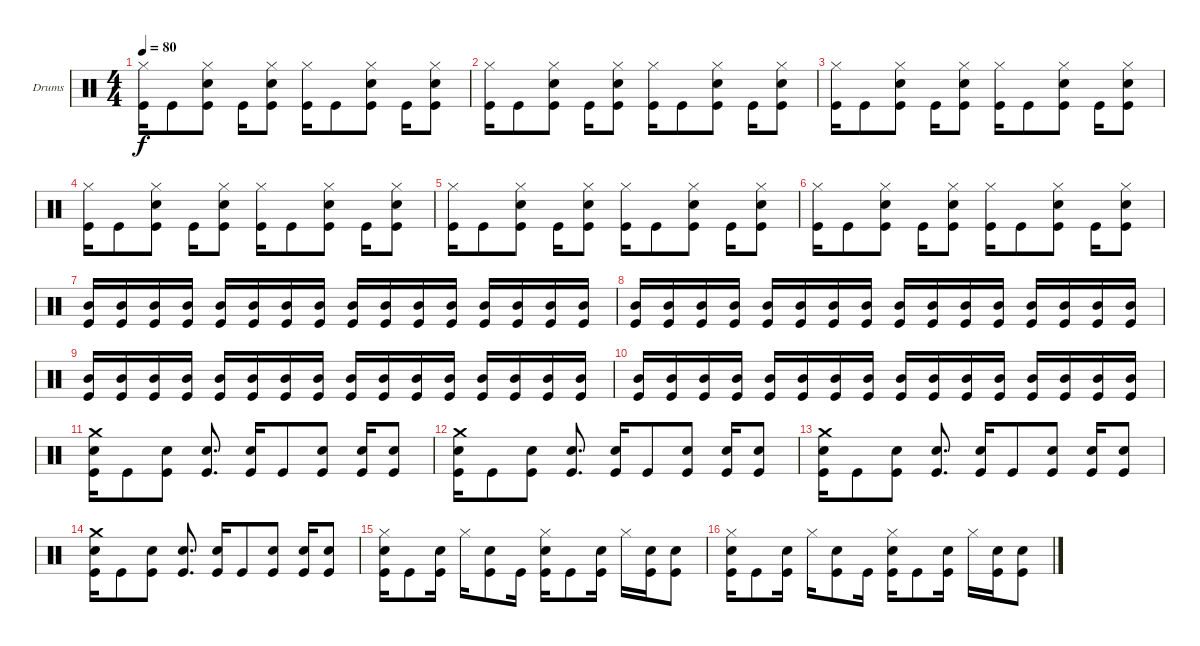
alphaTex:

\defaultSystemsLayout 4
\bracketExtendMode groupsimilarinstruments
\firstSystemTrackNameOrientation horizontal
\otherSystemsTrackNameOrientation horizontal
\track ("Drumkit" "Drums") {instrument percussion}
\staff {score}
\articulation defaults
\ts (4 4)
\tempo 80
\clef neutral
\scale
0.333333
\ks c
("Hi-Hat (closed)" "Kick (hit)").16{dy f} "Kick (hit)".8 ("Hi-Hat (closed)" "Snare (hit) 2" "Kick (hit)").8 "Kick (hit)".16 ("Hi-Hat (closed)" "Snare (hit) 2" "Kick (hit)").8 ("Hi-Hat (closed)" "Kick (hit)").16 "Kick (hit)".8 ("Hi-Hat (closed)" "Snare (hit) 2" "Kick (hit)").8 "Kick (hit)".16 ("Hi-Hat (closed)" "Snare (hit) 2" "Kick (hit)").8 |
\scale
0.333333 ("Hi-Hat (closed)" "Kick (hit)").16 "Kick (hit)".8 ("Hi-Hat (closed)" "Snare (hit) 2" "Kick (hit)").8 "Kick (hit)".16 ("Hi-Hat (closed)" "Snare (hit) 2" "Kick (hit)").8 ("Hi-Hat (closed)" "Kick (hit)").16 "Kick (hit)".8 ("Hi-Hat (closed)" "Snare (hit) 2" "Kick (hit)").8 "Kick (hit)".16 ("Hi-Hat (closed)" "Snare (hit) 2" "Kick (hit)").8 |
\scale
0.333333 ("Hi-Hat (closed)" "Kick (hit)").16 "Kick (hit)".8 ("Hi-Hat (closed)" "Snare (hit) 2" "Kick (hit)").8 "Kick (hit)".16 ("Hi-Hat (closed)" "Snare (hit) 2" "Kick (hit)").8 ("Hi-Hat (closed)" "Kick (hit)").16 "Kick (hit)".8 ("Hi-Hat (closed)" "Snare (hit) 2" "Kick (hit)").8 "Kick (hit)".16 ("Hi-Hat (closed)" "Snare (hit) 2" "Kick (hit)").8 |
\scale
0.333333 ("Hi-Hat (closed)" "Kick (hit)").16 "Kick (hit)".8 ("Hi-Hat (closed)" "Snare (hit) 2" "Kick (hit)").8 "Kick (hit)".16 ("Hi-Hat (closed)" "Snare (hit) 2" "Kick (hit)").8 ("Hi-Hat (closed)" "Kick (hit)").16 "Kick (hit)".8 ("Hi-Hat (closed)" "Snare (hit) 2" "Kick (hit)").8 "Kick (hit)".16 ("Hi-Hat (closed)" "Snare (hit) 2" "Kick (hit)").8 |
\scale
0.333333 ("Hi-Hat (closed)" "Kick (hit)").16 "Kick (hit)".8 ("Hi-Hat (closed)" "Snare (hit) 2" "Kick (hit)").8 "Kick (hit)".16 ("Hi-Hat (closed)" "Snare (hit) 2" "Kick (hit)").8 ("Hi-Hat (closed)" "Kick (hit)").16 "Kick (hit)".8 ("Hi-Hat (closed)" "Snare (hit) 2" "Kick (hit)").8 "Kick (hit)".16 ("Hi-Hat (closed)" "Snare (hit) 2" "Kick (hit)").8 |
\scale
0.333333 ("Hi-Hat (closed)" "Kick (hit)").16 "Kick (hit)".8 ("Hi-Hat (closed)" "Snare (hit) 2" "Kick (hit)").8 "Kick (hit)".16 ("Hi-Hat (closed)" "Snare (hit) 2" "Kick (hit)").8 ("Hi-Hat (closed)" "Kick (hit)").16 "Kick (hit)".8 ("Hi-Hat (closed)" "Snare (hit) 2" "Kick (hit)").8 "Kick (hit)".16 ("Hi-Hat (closed)" "Snare (hit) 2" "Kick (hit)").8 |
\scale
0.333333 ("Mid Tom (hit)" "Kick (hit)").16 ("Mid Tom (hit)" "Kick (hit)").16 ("Mid Tom (hit)" "Kick (hit)").16 ("Mid Tom (hit)" "Kick (hit)").16 ("Mid Tom (hit)" "Kick (hit)").16 ("Mid Tom (hit)" "Kick (hit)").16 ("Mid Tom (hit)" "Kick (hit)").16 ("Mid Tom (hit)" "Kick (hit)").16 ("Mid Tom (hit)" "Kick (hit)").16 ("Mid Tom (hit)" "Kick (hit)").16 ("Mid Tom (hit)" "Kick (hit)").16 ("Mid Tom (hit)" "Kick (hit)").16 ("Mid Tom (hit)" "Kick (hit)").16 ("Mid Tom (hit)" "Kick (hit)").16 ("Mid Tom (hit)" "Kick (hit)").16 ("Mid Tom (hit)" "Kick (hit)").16 |
\scale
0.333333 ("Mid Tom (hit)" "Kick (hit)").16 ("Mid Tom (hit)" "Kick (hit)").16 ("Mid Tom (hit)" "Kick (hit)").16 ("Mid Tom (hit)" "Kick (hit)").16 ("Mid Tom (hit)" "Kick (hit)").16 ("Mid Tom (hit)" "Kick (hit)").16 ("Mid Tom (hit)" "Kick (hit)").16 ("Mid Tom (hit)" "Kick (hit)").16 ("Mid Tom (hit)" "Kick (hit)").16 ("Mid Tom (hit)" "Kick (hit)").16 ("Mid Tom (hit)" "Kick (hit)").16 ("Mid Tom (hit)" "Kick (hit)").16 ("Mid Tom (hit)" "Kick (hit)").16 ("Mid Tom (hit)" "Kick (hit)").16 ("Mid Tom (hit)" "Kick (hit)").16 ("Mid Tom (hit)" "Kick (hit)").16 |
\scale
0.333333 ("Mid Tom (hit)" "Kick (hit)").16 ("Mid Tom (hit)" "Kick (hit)").16 ("Mid Tom (hit)" "Kick (hit)").16 ("Mid Tom (hit)" "Kick (hit)").16 ("Mid Tom (hit)" "Kick (hit)").16 ("Mid Tom (hit)" "Kick (hit)").16 ("Mid Tom (hit)" "Kick (hit)").16 ("Mid Tom (hit)" "Kick (hit)").16 ("Mid Tom (hit)" "Kick (hit)").16 ("Mid Tom (hit)" "Kick (hit)").16 ("Mid Tom (hit)" "Kick (hit)").16 ("Mid Tom (hit)" "Kick (hit)").16 ("Mid Tom (hit)" "Kick (hit)").16 ("Mid Tom (hit)" "Kick (hit)").16 ("Mid Tom (hit)" "Kick (hit)").16 ("Mid Tom (hit)" "Kick (hit)").16 |
\scale
0.333333 ("Mid Tom (hit)" "Kick (hit)").16 ("Mid Tom (hit)" "Kick (hit)").16 ("Mid Tom (hit)" "Kick (hit)").16 ("Mid Tom (hit)" "Kick (hit)").16 ("Mid Tom (hit)" "Kick (hit)").16 ("Mid Tom (hit)" "Kick (hit)").16 ("Mid Tom (hit)" "Kick (hit)").16 ("Mid Tom (hit)" "Kick (hit)").16 ("Mid Tom (hit)" "Kick (hit)").16 ("Mid Tom (hit)" "Kick (hit)").16 ("Mid Tom (hit)" "Kick (hit)").16 ("Mid Tom (hit)" "Kick (hit)").16 ("Mid Tom (hit)" "Kick (hit)").16 ("Mid Tom (hit)" "Kick (hit)").16 ("Mid Tom (hit)" "Kick (hit)").16 ("Mid Tom (hit)" "Kick (hit)").16 |
\scale
0.333333 ("Crash medium (hit)" "Snare (hit) 2" "Kick (hit)").16 "Kick (hit)".8 ("Snare (hit) 2" "Kick (hit)").8 ("Snare (hit) 2" "Kick (hit)").8{d} ("Snare (hit) 2" "Kick (hit)").16 "Kick (hit)".8 ("Snare (hit) 2" "Kick (hit)").8 ("Snare (hit) 2" "Kick (hit)").16 ("Snare (hit) 2" "Kick (hit)").8 |
\scale
0.333333 ("Crash medium (hit)" "Snare (hit) 2" "Kick (hit)").16 "Kick (hit)".8 ("Snare (hit) 2" "Kick (hit)").8 ("Snare (hit) 2" "Kick (hit)").8{d} ("Snare (hit) 2" "Kick (hit)").16 "Kick (hit)".8 ("Snare (hit) 2" "Kick (hit)").8 ("Snare (hit) 2" "Kick (hit)").16 ("Snare (hit) 2" "Kick (hit)").8 |
\scale
0.333333 ("Crash medium (hit)" "Snare (hit) 2" "Kick (hit)").16 "Kick (hit)".8 ("Snare (hit) 2" "Kick (hit)").8 ("Snare (hit) 2" "Kick (hit)").8{d} ("Snare (hit) 2" "Kick (hit)").16 "Kick (hit)".8 ("Snare (hit) 2" "Kick (hit)").8 ("Snare (hit) 2" "Kick (hit)").16 ("Snare (hit) 2" "Kick (hit)").8 |
\scale
0.333333 ("Crash medium (hit)" "Snare (hit) 2" "Kick (hit)").16 "Kick (hit)".8 ("Snare (hit) 2" "Kick (hit)").8 ("Snare (hit) 2" "Kick (hit)").8{d} ("Snare (hit) 2" "Kick (hit)").16 "Kick (hit)".8 ("Snare (hit) 2" "Kick (hit)").8 ("Snare (hit) 2" "Kick (hit)").16 ("Snare (hit) 2" "Kick (hit)").8 |
\scale
0.333333 ("Hi-Hat (closed)" "Snare (hit) 2" "Kick (hit)").16 "Kick (hit)".8 ("Snare (hit) 2" "Kick (hit)").16 "Hi-Hat (closed)".16 ("Snare (hit) 2" "Kick (hit)").8 "Kick (hit)".16 ("Hi-Hat (closed)" "Snare (hit) 2" "Kick (hit)").16 "Kick (hit)".8 ("Snare (hit) 2" "Kick (hit)").16 "Hi-Hat (closed)".16 ("Snare (hit) 2" "Kick (hit)").16 ("Snare (hit) 2" "Kick (hit)").8 |
\scale
0.333333 ("Hi-Hat (closed)" "Snare (hit) 2" "Kick (hit)").16 "Kick (hit)".8 ("Snare (hit) 2" "Kick (hit)").16 "Hi-Hat (closed)".16 ("Snare (hit) 2" "Kick (hit)").8 "Kick (hit)".16 ("Hi-Hat (closed)" "Snare (hit) 2" "Kick (hit)").16 "Kick (hit)".8 ("Snare (hit) 2" "Kick (hit)").16 "Hi-Hat (closed)".16 ("Snare (hit) 2" "Kick (hit)").16 ("Snare (hit) 2" "Kick (hit)").8
